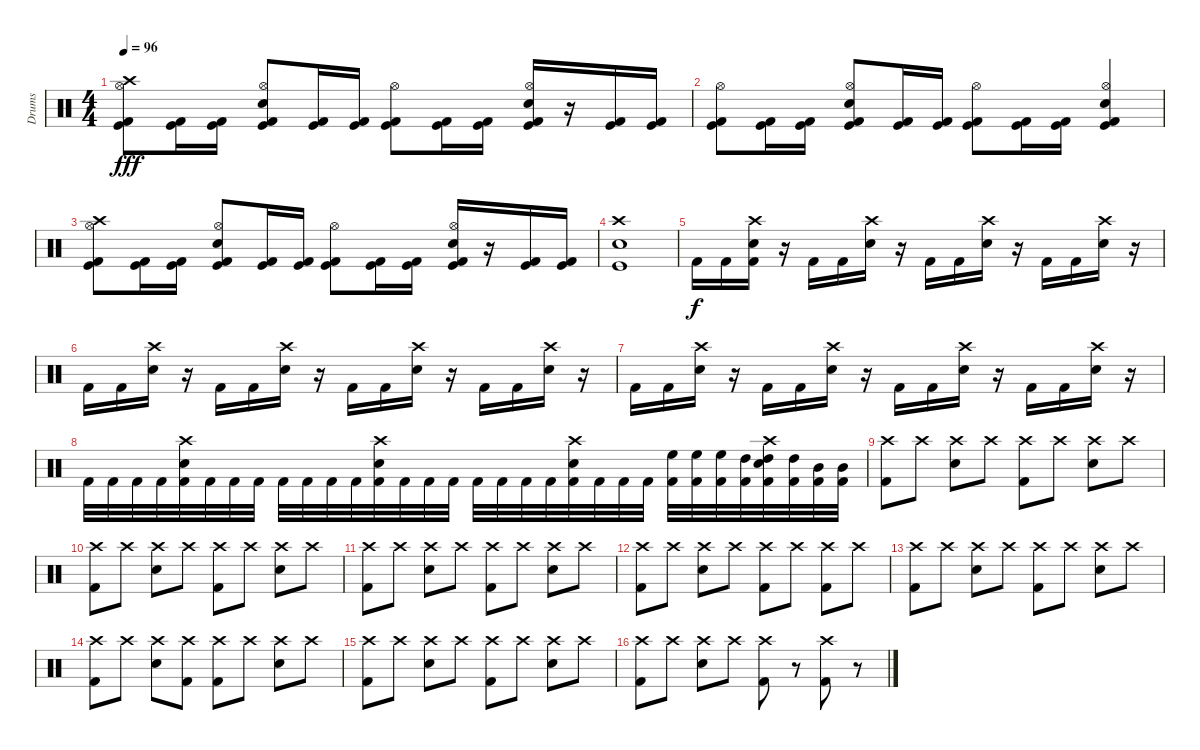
\track ("Drums" "Drums") {instrument percussion}
\staff {score}
\articulation defaults
\ts (4 4)
\tempo 96
\clef neutral
\ks c
("Crash high (hit)" "Kick (hit)" "Kick (hit) 2" "Hi-Hat (open)").8{dy fff} ("Kick (hit)" "Kick (hit) 2").16 ("Kick (hit)" "Kick (hit) 2").16 ("Snare (hit) 2" "Kick (hit)" "Kick (hit) 2" "Hi-Hat (open)").8 ("Kick (hit)" "Kick (hit) 2").16 ("Kick (hit)" "Kick (hit) 2").16 ("Kick (hit)" "Kick (hit) 2" "Hi-Hat (open)").8 ("Kick (hit)" "Kick (hit) 2").16 ("Kick (hit)" "Kick (hit) 2").16 ("Snare (hit) 2" "Kick (hit)" "Kick (hit) 2" "Hi-Hat (open)").16 r.16 ("Kick (hit)" "Kick (hit) 2").16 ("Kick (hit)" "Kick (hit) 2").16 |
("Kick (hit)" "Kick (hit) 2" "Hi-Hat (open)").8 ("Kick (hit)" "Kick (hit) 2").16 ("Kick (hit)" "Kick (hit) 2").16 ("Snare (hit) 2" "Kick (hit)" "Kick (hit) 2" "Hi-Hat (open)").8 ("Kick (hit)" "Kick (hit) 2").16 ("Kick (hit)" "Kick (hit) 2").16 ("Kick (hit)" "Kick (hit) 2" "Hi-Hat (open)").8 ("Kick (hit)" "Kick (hit) 2").16 ("Kick (hit)" "Kick (hit) 2").16 ("Snare (hit) 2" "Kick (hit)" "Kick (hit) 2" "Hi-Hat (open)").4 |
("Crash high (hit)" "Kick (hit)" "Kick (hit) 2" "Hi-Hat (open)").8 ("Kick (hit)" "Kick (hit) 2").16 ("Kick (hit)" "Kick (hit) 2").16 ("Snare (hit) 2" "Kick (hit)" "Kick (hit) 2" "Hi-Hat (open)").8 ("Kick (hit)" "Kick (hit) 2").16 ("Kick (hit)" "Kick (hit) 2").16 ("Kick (hit)" "Kick (hit) 2" "Hi-Hat (open)").8 ("Kick (hit)" "Kick (hit) 2").16 ("Kick (hit)" "Kick (hit) 2").16 ("Snare (hit) 2" "Kick (hit)" "Kick (hit) 2" "Hi-Hat (open)").16 r.16 ("Kick (hit)" "Kick (hit) 2").16 ("Kick (hit)" "Kick (hit) 2").16 |
("Crash high (hit)" "Kick (hit)" "Snare (hit) 2").1 |
"Kick (hit) 2".16{dy f} "Kick (hit) 2".16 ("Crash high (hit)" "Snare (hit) 2" "Kick (hit) 2").16 r.16 "Kick (hit) 2".16 "Kick (hit) 2".16 ("Crash high (hit)" "Snare (hit) 2").16 r.16 "Kick (hit) 2".16 "Kick (hit) 2".16 ("Crash high (hit)" "Snare (hit) 2").16 r.16 "Kick (hit) 2".16 "Kick (hit) 2".16 ("Crash high (hit)" "Snare (hit) 2").16 r.16 |
"Kick (hit) 2".16 "Kick (hit) 2".16 ("Crash high (hit)" "Snare (hit) 2").16 r.16 "Kick (hit) 2".16 "Kick (hit) 2".16 ("Crash high (hit)" "Snare (hit) 2").16 r.16 "Kick (hit) 2".16 "Kick (hit) 2".16 ("Crash high (hit)" "Snare (hit) 2").16 r.16 "Kick (hit) 2".16 "Kick (hit) 2".16 ("Crash high (hit)" "Snare (hit) 2").16 r.16 |
"Kick (hit) 2".16 "Kick (hit) 2".16 ("Crash high (hit)" "Snare (hit) 2").16 r.16 "Kick (hit) 2".16 "Kick (hit) 2".16 ("Crash high (hit)" "Snare (hit) 2").16 r.16 "Kick (hit) 2".16 "Kick (hit) 2".16 ("Crash high (hit)" "Snare (hit) 2").16 r.16 "Kick (hit) 2".16 "Kick (hit) 2".16 ("Crash high (hit)" "Snare (hit) 2").16 r.16 |
"Kick (hit) 2".32 "Kick (hit) 2".32 "Kick (hit) 2".32 "Kick (hit) 2".32 ("Crash high (hit)" "Snare (hit) 2" "Kick (hit) 2").32 "Kick (hit) 2".32 "Kick (hit) 2".32 "Kick (hit) 2".32 "Kick (hit) 2".32 "Kick (hit) 2".32 "Kick (hit) 2".32 "Kick (hit) 2".32 ("Crash high (hit)" "Snare (hit) 2" "Kick (hit) 2").32 "Kick (hit) 2".32 "Kick (hit) 2".32 "Kick (hit) 2".32 "Kick (hit) 2".32 "Kick (hit) 2".32 "Kick (hit) 2".32 "Kick (hit) 2".32 ("Crash high (hit)" "Snare (hit) 2" "Kick (hit) 2").32 "Kick (hit) 2".32 "Kick (hit) 2".32 "Kick (hit) 2".32 ("High Floor Tom (hit)" "Kick (hit) 2").32 ("High Floor Tom (hit)" "Kick (hit) 2").32 ("High Floor Tom (hit)" "Kick (hit) 2").32 ("High Tom (hit)" "Kick (hit) 2").32 ("Crash high (hit)" "High Tom (hit)" "Snare (hit) 2" "Kick (hit) 2").32 ("High Tom (hit)" "Kick (hit) 2").32 ("Mid Tom (hit)" "Kick (hit) 2").32 ("Mid Tom (hit)" "Kick (hit) 2").32 |
("Crash high (hit)" "Kick (hit) 2").8 "Crash high (hit)".8 ("Crash high (hit)" "Snare (hit) 2").8 "Crash high (hit)".8 ("Crash high (hit)" "Kick (hit) 2").8 "Crash high (hit)".8 ("Crash high (hit)" "Snare (hit) 2").8 "Crash high (hit)".8 |
("Crash high (hit)" "Kick (hit) 2").8 "Crash high (hit)".8 ("Crash high (hit)" "Snare (hit) 2").8 "Crash high (hit)".8 ("Crash high (hit)" "Kick (hit) 2").8 "Crash high (hit)".8 ("Crash high (hit)" "Snare (hit) 2").8 "Crash high (hit)".8 |
("Crash high (hit)" "Kick (hit) 2").8 "Crash high (hit)".8 ("Crash high (hit)" "Snare (hit) 2").8 "Crash high (hit)".8 ("Crash high (hit)" "Kick (hit) 2").8 "Crash high (hit)".8 ("Crash high (hit)" "Snare (hit) 2").8 "Crash high (hit)".8 |
("Crash high (hit)" "Kick (hit) 2").8 "Crash high (hit)".8 ("Crash high (hit)" "Snare (hit) 2").8 "Crash high (hit)".8 ("Crash high (hit)" "Kick (hit) 2").8 "Crash high (hit)".8 ("Crash high (hit)" "Kick (hit) 2").8 "Crash high (hit)".8 |
("Crash high (hit)" "Kick (hit) 2").8 "Crash high (hit)".8 ("Crash high (hit)" "Snare (hit) 2").8 "Crash high (hit)".8 ("Crash high (hit)" "Kick (hit) 2").8 "Crash high (hit)".8 ("Crash high (hit)" "Snare (hit) 2").8 "Crash high (hit)".8 |
("Crash high (hit)" "Kick (hit) 2").8 "Crash high (hit)".8 ("Crash high (hit)" "Snare (hit) 2").8 ("Crash high (hit)" "Kick (hit) 2").8 ("Crash high (hit)" "Kick (hit) 2").8 "Crash high (hit)".8 ("Crash high (hit)" "Snare (hit) 2").8 "Crash high (hit)".8 |
("Crash high (hit)" "Kick (hit) 2").8 "Crash high (hit)".8 ("Crash high (hit)" "Snare (hit) 2").8 "Crash high (hit)".8 ("Crash high (hit)" "Kick (hit) 2").8 "Crash high (hit)".8 ("Crash high (hit)" "Snare (hit) 2").8 "Crash high (hit)".8 |
("Crash high (hit)" "Kick (hit) 2").8 "Crash high (hit)".8 ("Crash high (hit)" "Snare (hit) 2").8 "Crash high (hit)".8 ("Crash high (hit)" "Kick (hit) 2").8 r.8 ("Crash high (hit)" "Kick (hit) 2").8 r.8
